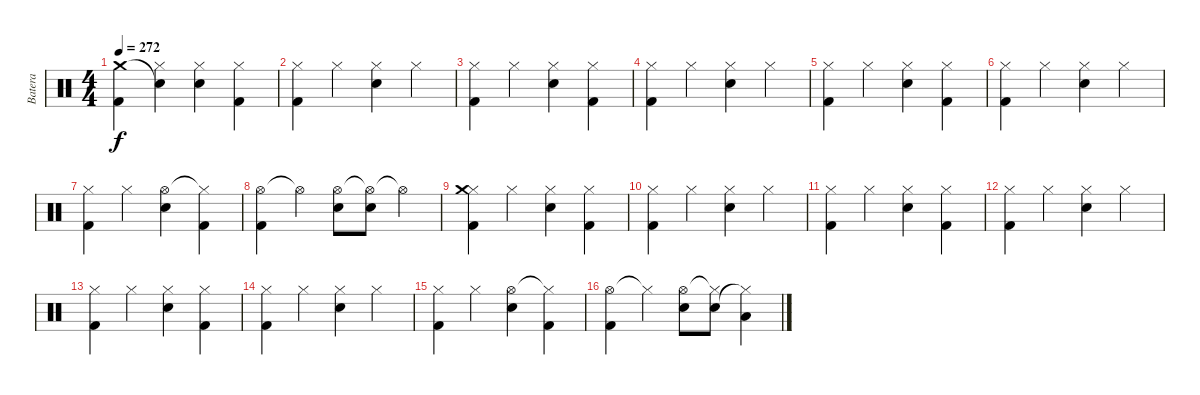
\track ("Batera" "Batera") {instrument percussion}
\staff {score}
\articulation defaults
\ts (4 4)
\tempo 272
\clef neutral
\ks c
("Crash medium (hit)" "Kick (hit) 2").4{dy f} ("Snare (hit)"{t} "Hi-Hat (closed)").4 ("Hi-Hat (closed)" "Electric Snare (hit)").4 ("Hi-Hat (closed)" "Kick (hit) 2").4 |
("Hi-Hat (closed)" "Kick (hit) 2").4 "Hi-Hat (closed)".4 ("Hi-Hat (closed)" "Electric Snare (hit)").4 "Hi-Hat (closed)".4 |
("Hi-Hat (closed)" "Kick (hit) 2").4 "Hi-Hat (closed)".4 ("Hi-Hat (closed)" "Electric Snare (hit)").4 ("Hi-Hat (closed)" "Kick (hit) 2").4 |
("Hi-Hat (closed)" "Kick (hit) 2").4 "Hi-Hat (closed)".4 ("Hi-Hat (closed)" "Electric Snare (hit)").4 "Hi-Hat (closed)".4 |
("Hi-Hat (closed)" "Kick (hit) 2").4 "Hi-Hat (closed)".4 ("Hi-Hat (closed)" "Electric Snare (hit)").4 ("Hi-Hat (closed)" "Kick (hit) 2").4 |
("Hi-Hat (closed)" "Kick (hit) 2").4 "Hi-Hat (closed)".4 ("Hi-Hat (closed)" "Electric Snare (hit)").4 "Hi-Hat (closed)".4 |
("Hi-Hat (closed)" "Kick (hit) 2").4 "Hi-Hat (closed)".4 ("Hi-Hat (open)" "Electric Snare (hit)").4 ("Hi-Hat (closed)"{t} "Kick (hit) 2").4 |
("Hi-Hat (open)" "Kick (hit) 2").4 "Hi-Hat (open)"{t}.4 ("Hi-Hat (open)" "Electric Snare (hit)").8 ("Hi-Hat (open)"{t} "Electric Snare (hit)").8 "Hi-Hat (open)"{t}.4 |
("Hi-Hat (closed)" "Crash medium (hit)" "Kick (hit) 2").4 "Hi-Hat (closed)".4 ("Hi-Hat (closed)" "Electric Snare (hit)").4 ("Hi-Hat (closed)" "Kick (hit) 2").4 |
("Hi-Hat (closed)" "Kick (hit) 2").4 "Hi-Hat (closed)".4 ("Hi-Hat (closed)" "Electric Snare (hit)").4 "Hi-Hat (closed)".4 |
("Hi-Hat (closed)" "Kick (hit) 2").4 "Hi-Hat (closed)".4 ("Hi-Hat (closed)" "Electric Snare (hit)").4 ("Hi-Hat (closed)" "Kick (hit) 2").4 |
("Hi-Hat (closed)" "Kick (hit) 2").4 "Hi-Hat (closed)".4 ("Hi-Hat (closed)" "Electric Snare (hit)").4 "Hi-Hat (closed)".4 |
("Hi-Hat (closed)" "Kick (hit) 2").4 "Hi-Hat (closed)".4 ("Hi-Hat (closed)" "Electric Snare (hit)").4 ("Hi-Hat (closed)" "Kick (hit) 2").4 |
("Hi-Hat (closed)" "Kick (hit) 2").4 "Hi-Hat (closed)".4 ("Hi-Hat (closed)" "Electric Snare (hit)").4 "Hi-Hat (closed)".4 |
("Hi-Hat (closed)" "Kick (hit) 2").4 "Hi-Hat (closed)".4 ("Hi-Hat (open)" "Electric Snare (hit)").4 ("Hi-Hat (closed)"{t} "Kick (hit) 2").4 |
("Hi-Hat (open)" "Kick (hit) 2").4 "Hi-Hat (closed)"{t}.4 ("Hi-Hat (open)" "Electric Snare (hit)").8 ("Hi-Hat (closed)"{t} "Electric Snare (hit)").8 ("Low Tom (hit)" "Hi-Hat (closed)"{t}).4
